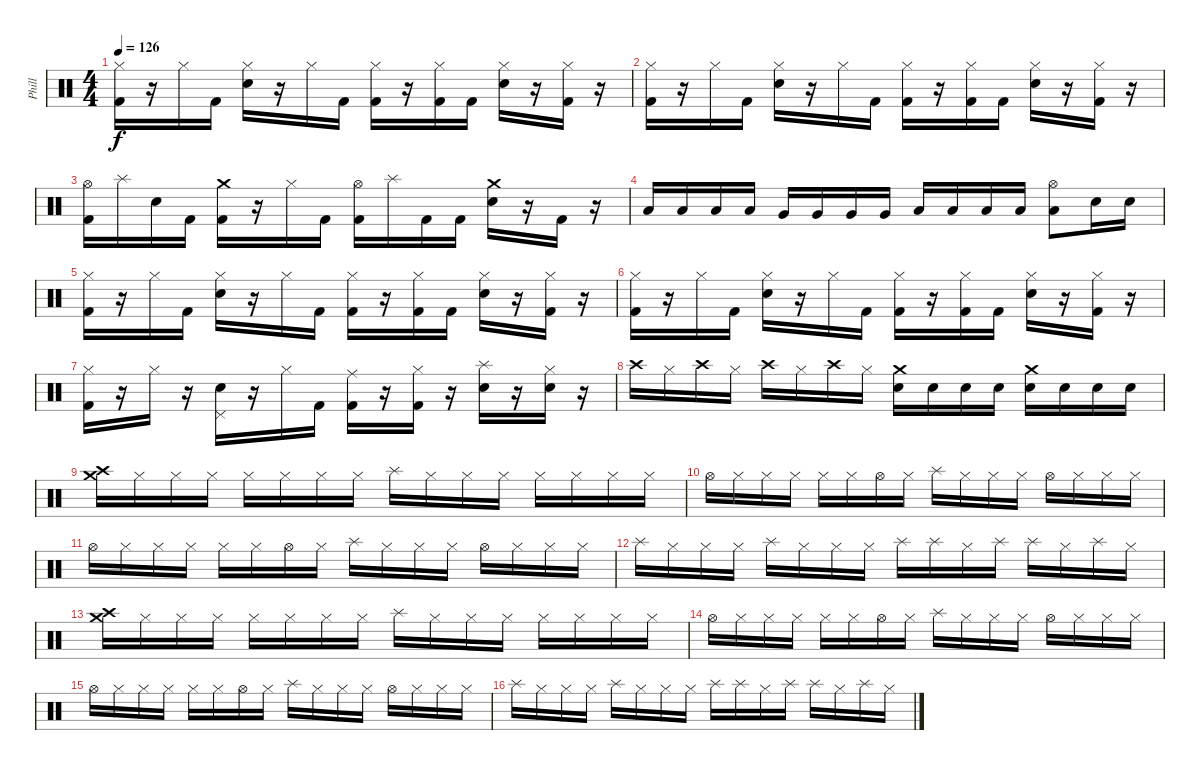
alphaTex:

\track ("Phill" "Phill") {instrument percussion}
\staff {score}
\articulation defaults
\ts (4 4)
\tempo 126
\clef neutral
\ks c
("Hi-Hat (closed)" "Kick (hit) 2").16{dy f} r.16 "Hi-Hat (closed)".16 "Kick (hit) 2".16 ("Hi-Hat (closed)" "Electric Snare (hit)").16 r.16 "Hi-Hat (closed)".16 "Kick (hit) 2".16 ("Hi-Hat (closed)" "Kick (hit) 2").16 r.16 ("Hi-Hat (closed)" "Kick (hit) 2").16 "Kick (hit) 2".16 ("Hi-Hat (closed)" "Electric Snare (hit)").16 r.16 ("Hi-Hat (closed)" "Kick (hit) 2").16 r.16 |
("Hi-Hat (closed)" "Kick (hit) 2").16 r.16 "Hi-Hat (closed)".16 "Kick (hit) 2".16 ("Hi-Hat (closed)" "Electric Snare (hit)").16 r.16 "Hi-Hat (closed)".16 "Kick (hit) 2".16 ("Hi-Hat (closed)" "Kick (hit) 2").16 r.16 ("Hi-Hat (closed)" "Kick (hit) 2").16 "Kick (hit) 2".16 ("Hi-Hat (closed)" "Electric Snare (hit)").16 r.16 ("Hi-Hat (closed)" "Kick (hit) 2").16 r.16 |
("Hi-Hat (open)" "Kick (hit) 2").16 "Splash (hit)".16 "Electric Snare (hit)".16 "Kick (hit) 2".16 ("Crash medium (hit)" "Kick (hit) 2").16 r.16 "Hi-Hat (closed)".16 "Kick (hit) 2".16 ("Hi-Hat (open)" "Kick (hit) 2").16 "Splash (hit)".16 "Kick (hit) 2".16 "Kick (hit) 2".16 ("Crash medium (hit)" "Electric Snare (hit)").16 r.16 "Kick (hit) 2".16 r.16 |
"Low Tom (hit)".16 "Low Tom (hit)".16 "Low Tom (hit)".16 "Low Tom (hit)".16 "Very Low Tom (hit)".16 "Very Low Tom (hit)".16 "Very Low Tom (hit)".16 "Very Low Tom (hit)".16 "Low Floor Tom (hit)".16 "Low Floor Tom (hit)".16 "Low Floor Tom (hit)".16 "Low Floor Tom (hit)".16 ("Hi-Hat (open)" "Low Tom (hit)").8 "Electric Snare (hit)".16 "Electric Snare (hit)".16 |
("Hi-Hat (closed)" "Kick (hit) 2").16 r.16 "Hi-Hat (closed)".16 "Kick (hit) 2".16 ("Hi-Hat (closed)" "Electric Snare (hit)").16 r.16 "Hi-Hat (closed)".16 "Kick (hit) 2".16 ("Hi-Hat (closed)" "Kick (hit) 2").16 r.16 ("Hi-Hat (closed)" "Kick (hit) 2").16 "Kick (hit) 2".16 ("Hi-Hat (closed)" "Electric Snare (hit)").16 r.16 ("Hi-Hat (closed)" "Kick (hit) 2").16 r.16 |
("Hi-Hat (closed)" "Kick (hit) 2").16 r.16 "Hi-Hat (closed)".16 "Kick (hit) 2".16 ("Hi-Hat (closed)" "Electric Snare (hit)").16 r.16 "Hi-Hat (closed)".16 "Kick (hit) 2".16 ("Hi-Hat (closed)" "Kick (hit) 2").16 r.16 ("Hi-Hat (closed)" "Kick (hit) 2").16 "Kick (hit) 2".16 ("Hi-Hat (closed)" "Electric Snare (hit)").16 r.16 ("Hi-Hat (closed)" "Kick (hit) 2").16 r.16 |
("Hi-Hat (closed)" "Kick (hit) 2").16 r.16 "Hi-Hat (closed)".16 r.16 ("Pedal Hi-Hat (hit)" "Electric Snare (hit)").16 r.16 "Hi-Hat (closed)".16 "Kick (hit) 2".16 ("Ride (middle)" "Kick (hit) 2").16 r.16 ("Hi-Hat (closed)" "Kick (hit) 2").16 r.16 ("Splash (hit)" "Electric Snare (hit)").16 r.16 ("Hi-Hat (closed)" "Electric Snare (hit)").16 r.16 |
"Crash high (hit)".16 "Hi-Hat (closed)".16 "Crash high (hit)".16 "Hi-Hat (closed)".16 "Crash high (hit)".16 "Hi-Hat (closed)".16 "Crash high (hit)".16 "Hi-Hat (closed)".16 ("Crash medium (hit)" "Electric Snare (hit)").16 "Electric Snare (hit)".16 "Electric Snare (hit)".16 "Electric Snare (hit)".16 ("Crash medium (hit)" "Electric Snare (hit)").16 "Electric Snare (hit)".16 "Electric Snare (hit)".16 "Electric Snare (hit)".16 |
("Crash medium (hit)" "Crash high (hit)").16 "Hi-Hat (closed)".16 "Hi-Hat (closed)".16 "Hi-Hat (closed)".16 "Hi-Hat (closed)".16 "Hi-Hat (closed)".16 "Hi-Hat (closed)".16 "Hi-Hat (closed)".16 "Splash (hit)".16 "Hi-Hat (closed)".16 "Hi-Hat (closed)".16 "Hi-Hat (closed)".16 "Hi-Hat (closed)".16 "Hi-Hat (closed)".16 "Hi-Hat (closed)".16 "Hi-Hat (closed)".16 |
"Hi-Hat (open)".16 "Hi-Hat (closed)".16 "Hi-Hat (closed)".16 "Hi-Hat (closed)".16 "Hi-Hat (closed)".16 "Hi-Hat (closed)".16 "Hi-Hat (open)".16 "Hi-Hat (closed)".16 "Splash (hit)".16 "Hi-Hat (closed)".16 "Hi-Hat (closed)".16 "Hi-Hat (closed)".16 "Hi-Hat (open)".16 "Hi-Hat (closed)".16 "Hi-Hat (closed)".16 "Hi-Hat (closed)".16 |
"Hi-Hat (open)".16 "Hi-Hat (closed)".16 "Hi-Hat (closed)".16 "Hi-Hat (closed)".16 "Hi-Hat (closed)".16 "Hi-Hat (closed)".16 "Hi-Hat (open)".16 "Hi-Hat (closed)".16 "Splash (hit)".16 "Hi-Hat (closed)".16 "Hi-Hat (closed)".16 "Hi-Hat (closed)".16 "Hi-Hat (open)".16 "Hi-Hat (closed)".16 "Hi-Hat (closed)".16 "Hi-Hat (closed)".16 |
"Splash (hit)".16 "Hi-Hat (closed)".16 "Hi-Hat (closed)".16 "Hi-Hat (closed)".16 "Splash (hit)".16 "Hi-Hat (closed)".16 "Hi-Hat (closed)".16 "Hi-Hat (closed)".16 "Splash (hit)".16 "Splash (hit)".16 "Hi-Hat (closed)".16 "Splash (hit)".16 "Splash (hit)".16 "Hi-Hat (closed)".16 "Splash (hit)".16 "Hi-Hat (closed)".16 |
("Crash medium (hit)" "Crash high (hit)").16 "Hi-Hat (closed)".16 "Hi-Hat (closed)".16 "Hi-Hat (closed)".16 "Hi-Hat (closed)".16 "Hi-Hat (closed)".16 "Hi-Hat (closed)".16 "Hi-Hat (closed)".16 "Splash (hit)".16 "Hi-Hat (closed)".16 "Hi-Hat (closed)".16 "Hi-Hat (closed)".16 "Hi-Hat (closed)".16 "Hi-Hat (closed)".16 "Hi-Hat (closed)".16 "Hi-Hat (closed)".16 |
"Hi-Hat (open)".16 "Hi-Hat (closed)".16 "Hi-Hat (closed)".16 "Hi-Hat (closed)".16 "Hi-Hat (closed)".16 "Hi-Hat (closed)".16 "Hi-Hat (open)".16 "Hi-Hat (closed)".16 "Splash (hit)".16 "Hi-Hat (closed)".16 "Hi-Hat (closed)".16 "Hi-Hat (closed)".16 "Hi-Hat (open)".16 "Hi-Hat (closed)".16 "Hi-Hat (closed)".16 "Hi-Hat (closed)".16 |
"Hi-Hat (open)".16 "Hi-Hat (closed)".16 "Hi-Hat (closed)".16 "Hi-Hat (closed)".16 "Hi-Hat (closed)".16 "Hi-Hat (closed)".16 "Hi-Hat (open)".16 "Hi-Hat (closed)".16 "Splash (hit)".16 "Hi-Hat (closed)".16 "Hi-Hat (closed)".16 "Hi-Hat (closed)".16 "Hi-Hat (open)".16 "Hi-Hat (closed)".16 "Hi-Hat (closed)".16 "Hi-Hat (closed)".16 |
"Splash (hit)".16 "Hi-Hat (closed)".16 "Hi-Hat (closed)".16 "Hi-Hat (closed)".16 "Splash (hit)".16 "Hi-Hat (closed)".16 "Hi-Hat (closed)".16 "Hi-Hat (closed)".16 "Splash (hit)".16 "Splash (hit)".16 "Hi-Hat (closed)".16 "Splash (hit)".16 "Splash (hit)".16 "Hi-Hat (closed)".16 "Splash (hit)".16 "Hi-Hat (closed)".16
